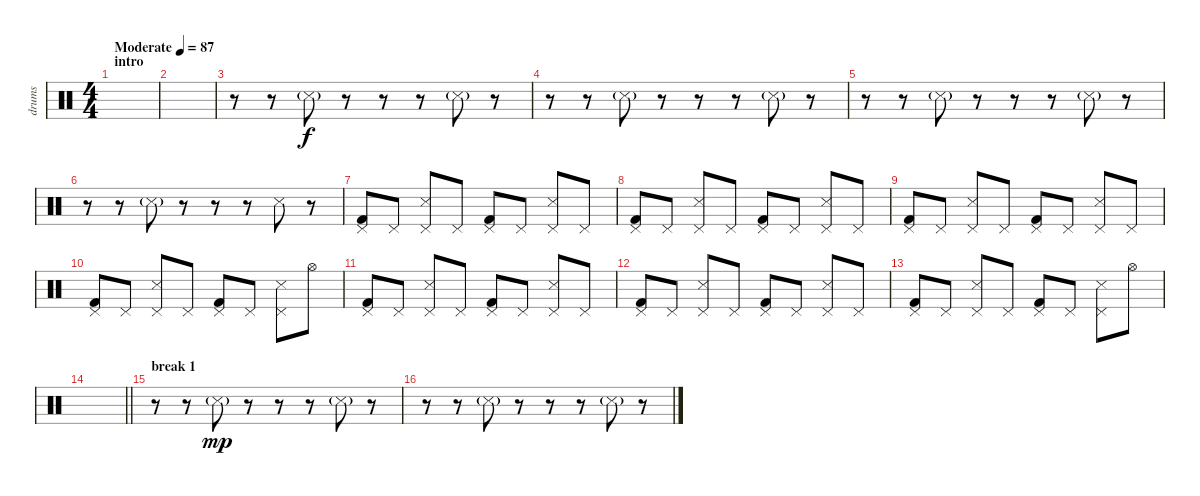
\track ("drums" "drums") {instrument percussion}
\staff {score}
\articulation defaults
\ts (4 4)
\section ("" "intro")
\tempo (87 "Moderate")
\clef neutral
\ks c
|
|
r.8 r.8 "Snare (side stick) 3"{g}.8 r.8 r.8 r.8 "Snare (side stick) 3"{g}.8 r.8 |
r.8 r.8 "Snare (side stick) 3"{g}.8 r.8 r.8 r.8 "Snare (side stick) 3"{g}.8 r.8 |
r.8 r.8 "Snare (side stick) 3"{g}.8 r.8 r.8 r.8 "Snare (side stick) 3"{g}.8 r.8 |
r.8 r.8 "Snare (side stick) 3"{g}.8 r.8 r.8 r.8{volume 16} "Snare (side stick) 3".8{dy f} r.8 |
("Kick (hit) 2" "Pedal Hi-Hat (hit)").8 "Pedal Hi-Hat (hit)".8 ("Snare (side stick) 3" "Pedal Hi-Hat (hit)").8 "Pedal Hi-Hat (hit)".8 ("Kick (hit) 2" "Pedal Hi-Hat (hit)").8 "Pedal Hi-Hat (hit)".8 ("Snare (side stick) 3" "Pedal Hi-Hat (hit)").8 "Pedal Hi-Hat (hit)".8 |
("Kick (hit) 2" "Pedal Hi-Hat (hit)").8 "Pedal Hi-Hat (hit)".8 ("Snare (side stick) 3" "Pedal Hi-Hat (hit)").8 "Pedal Hi-Hat (hit)".8 ("Kick (hit) 2" "Pedal Hi-Hat (hit)").8 "Pedal Hi-Hat (hit)".8 ("Snare (side stick) 3" "Pedal Hi-Hat (hit)").8 "Pedal Hi-Hat (hit)".8 |
("Kick (hit) 2" "Pedal Hi-Hat (hit)").8 "Pedal Hi-Hat (hit)".8 ("Snare (side stick) 3" "Pedal Hi-Hat (hit)").8 "Pedal Hi-Hat (hit)".8 ("Kick (hit) 2" "Pedal Hi-Hat (hit)").8 "Pedal Hi-Hat (hit)".8 ("Snare (side stick) 3" "Pedal Hi-Hat (hit)").8 "Pedal Hi-Hat (hit)".8 |
("Kick (hit) 2" "Pedal Hi-Hat (hit)").8 "Pedal Hi-Hat (hit)".8 ("Snare (side stick) 3" "Pedal Hi-Hat (hit)").8 "Pedal Hi-Hat (hit)".8 ("Kick (hit) 2" "Pedal Hi-Hat (hit)").8 "Pedal Hi-Hat (hit)".8 ("Snare (side stick) 3" "Pedal Hi-Hat (hit)").8 "Hi-Hat (open)".8 |
("Kick (hit) 2" "Pedal Hi-Hat (hit)").8 "Pedal Hi-Hat (hit)".8 ("Snare (side stick) 3" "Pedal Hi-Hat (hit)").8 "Pedal Hi-Hat (hit)".8 ("Kick (hit) 2" "Pedal Hi-Hat (hit)").8 "Pedal Hi-Hat (hit)".8 ("Snare (side stick) 3" "Pedal Hi-Hat (hit)").8 "Pedal Hi-Hat (hit)".8 |
("Kick (hit) 2" "Pedal Hi-Hat (hit)").8 "Pedal Hi-Hat (hit)".8 ("Snare (side stick) 3" "Pedal Hi-Hat (hit)").8 "Pedal Hi-Hat (hit)".8 ("Kick (hit) 2" "Pedal Hi-Hat (hit)").8 "Pedal Hi-Hat (hit)".8 ("Snare (side stick) 3" "Pedal Hi-Hat (hit)").8 "Pedal Hi-Hat (hit)".8 |
("Kick (hit) 2" "Pedal Hi-Hat (hit)").8 "Pedal Hi-Hat (hit)".8 ("Snare (side stick) 3" "Pedal Hi-Hat (hit)").8 "Pedal Hi-Hat (hit)".8 ("Kick (hit) 2" "Pedal Hi-Hat (hit)").8 "Pedal Hi-Hat (hit)".8 ("Snare (side stick) 3" "Pedal Hi-Hat (hit)").8 "Hi-Hat (open)".8 |
\barLineRight lightlight
|
\section ("" "break 1")
r.8{volume 6} r.8 "Snare (side stick) 3"{g}.8{dy mp} r.8 r.8 r.8 "Snare (side stick) 3"{g}.8 r.8 |
r.8 r.8 "Snare (side stick) 3"{g}.8 r.8 r.8 r.8 "Snare (side stick) 3"{g}.8 r.8
